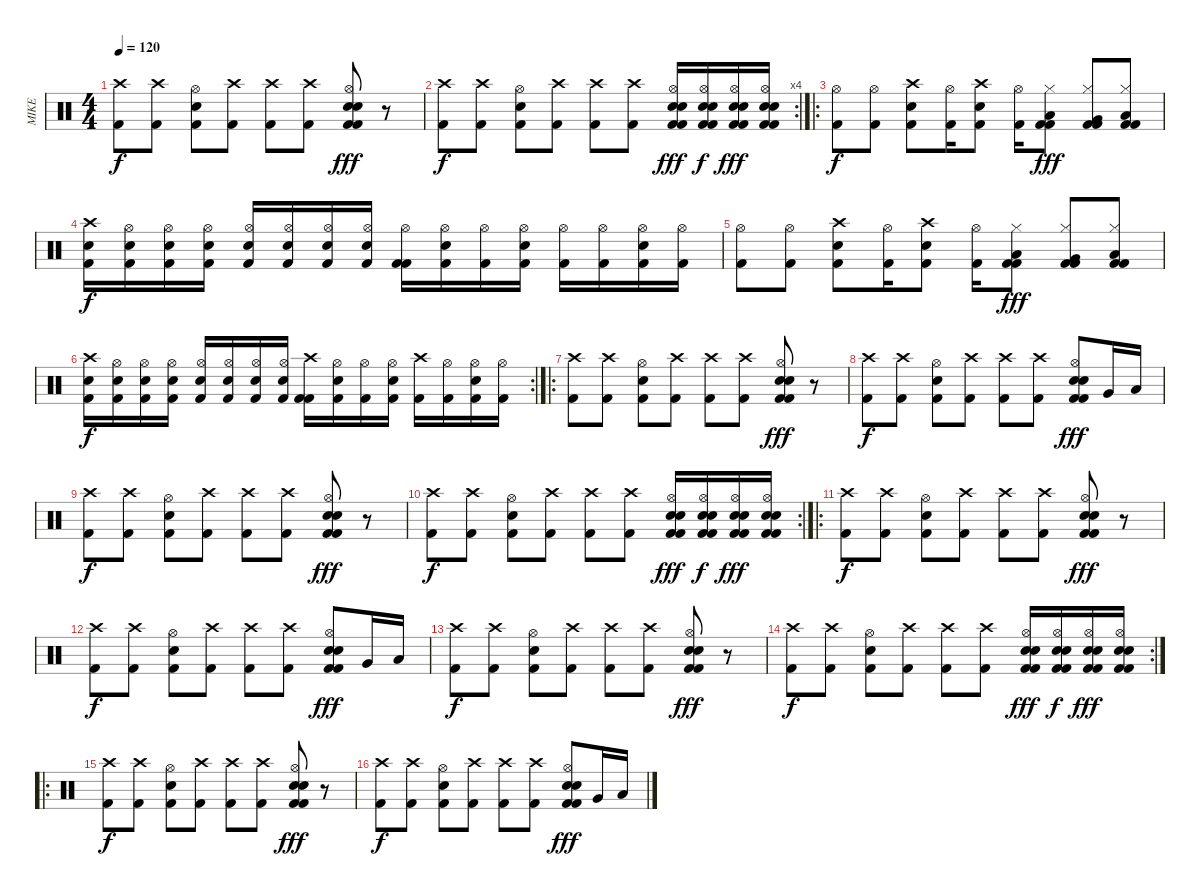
\track ("MIKE" "MIKE") {instrument percussion}
\staff {score}
\articulation defaults
\ts (4 4)
\tempo 120
\clef neutral
\ks c
("Crash high (hit)" "Kick (hit) 2").8{dy f} ("Crash high (hit)" "Kick (hit) 2").8 ("Hi-Hat (open)" "Electric Snare (hit)" "Kick (hit) 2").8 ("Crash high (hit)" "Kick (hit) 2").8 ("Crash high (hit)" "Kick (hit) 2").8 ("Crash high (hit)" "Kick (hit) 2").8 ("Hi-Hat (open)" "Kick (hit) 2" "Electric Snare (hit)" "Electric Snare (hit)" "Kick (hit) 2").8{dy fff} r.8 |
\rc 4
("Crash high (hit)" "Kick (hit) 2").8{dy f} ("Crash high (hit)" "Kick (hit) 2").8 ("Hi-Hat (open)" "Electric Snare (hit)" "Kick (hit) 2").8 ("Crash high (hit)" "Kick (hit) 2").8 ("Crash high (hit)" "Kick (hit) 2").8 ("Crash high (hit)" "Kick (hit) 2").8 ("Hi-Hat (open)" "Kick (hit) 2" "Electric Snare (hit)" "Electric Snare (hit)" "Kick (hit) 2").16{dy fff} ("Hi-Hat (open)" "Kick (hit) 2" "Electric Snare (hit)" "Electric Snare (hit)" "Kick (hit) 2").16{dy f} ("Hi-Hat (open)" "Kick (hit) 2" "Electric Snare (hit)" "Electric Snare (hit)" "Kick (hit) 2").16{dy fff} ("Hi-Hat (open)" "Kick (hit) 2" "Electric Snare (hit)" "Electric Snare (hit)" "Kick (hit) 2").16 |
\ro
("Hi-Hat (open)" "Kick (hit) 2").8{dy f} ("Hi-Hat (open)" "Kick (hit) 2").8 ("Crash high (hit)" "Electric Snare (hit)" "Kick (hit) 2").8 ("Hi-Hat (open)" "Kick (hit) 2").16 ("Crash high (hit)" "Electric Snare (hit)" "Kick (hit) 2").8 ("Hi-Hat (open)" "Kick (hit) 2").16 ("Hi-Hat (closed)" "Low Tom (hit)" "Kick (hit) 2" "Kick (hit) 2").8{dy fff} ("Hi-Hat (closed)" "Very Low Tom (hit)" "Kick (hit) 2" "Kick (hit) 2").8 ("Hi-Hat (closed)" "Low Floor Tom (hit)" "Kick (hit) 2" "Kick (hit) 2").8 |
("Crash high (hit)" "Kick (hit) 2" "Snare (hit) 2").16{dy f} ("Hi-Hat (open)" "Kick (hit) 2" "Snare (hit) 2").16 ("Hi-Hat (open)" "Kick (hit) 2" "Electric Snare (hit)").16 ("Hi-Hat (open)" "Kick (hit) 2" "Snare (hit) 2").16 ("Hi-Hat (open)" "Kick (hit) 2" "Snare (hit) 2").16 ("Hi-Hat (open)" "Kick (hit) 2" "Snare (hit) 2").16 ("Hi-Hat (open)" "Kick (hit) 2" "Snare (hit) 2").16 ("Hi-Hat (open)" "Kick (hit) 2" "Electric Snare (hit)").16 ("Hi-Hat (open)" "Kick (hit) 2" "Kick (hit) 2").16 ("Hi-Hat (open)" "Kick (hit) 2" "Snare (hit) 2").16 ("Hi-Hat (open)" "Kick (hit) 2").16 ("Hi-Hat (open)" "Kick (hit) 2" "Snare (hit) 2").16 ("Hi-Hat (open)" "Kick (hit) 2").16 ("Hi-Hat (open)" "Kick (hit) 2").16 ("Hi-Hat (open)" "Kick (hit) 2" "Snare (hit) 2").16 ("Hi-Hat (open)" "Kick (hit) 2").16 |
("Hi-Hat (open)" "Kick (hit) 2").8 ("Hi-Hat (open)" "Kick (hit) 2").8 ("Crash high (hit)" "Electric Snare (hit)" "Kick (hit) 2").8 ("Hi-Hat (open)" "Kick (hit) 2").16 ("Crash high (hit)" "Electric Snare (hit)" "Kick (hit) 2").8 ("Hi-Hat (open)" "Kick (hit) 2").16 ("Hi-Hat (closed)" "Low Tom (hit)" "Kick (hit) 2" "Kick (hit) 2").8{dy fff} ("Hi-Hat (closed)" "Very Low Tom (hit)" "Kick (hit) 2" "Kick (hit) 2").8 ("Hi-Hat (closed)" "Low Floor Tom (hit)" "Kick (hit) 2" "Kick (hit) 2").8 |
\rc 2
("Crash high (hit)" "Kick (hit) 2" "Snare (hit) 2").16{dy f} ("Hi-Hat (open)" "Kick (hit) 2" "Snare (hit) 2").16 ("Hi-Hat (open)" "Kick (hit) 2" "Electric Snare (hit)").16 ("Hi-Hat (open)" "Kick (hit) 2" "Snare (hit) 2").16 ("Hi-Hat (open)" "Kick (hit) 2" "Snare (hit) 2").16 ("Hi-Hat (open)" "Kick (hit) 2" "Snare (hit) 2").16 ("Hi-Hat (open)" "Kick (hit) 2" "Snare (hit) 2").16 ("Hi-Hat (open)" "Kick (hit) 2" "Electric Snare (hit)").16 ("Crash high (hit)" "Kick (hit) 2" "Kick (hit) 2").16 ("Hi-Hat (open)" "Kick (hit) 2" "Snare (hit) 2").16 ("Hi-Hat (open)" "Kick (hit) 2").16 ("Hi-Hat (open)" "Kick (hit) 2" "Snare (hit) 2").16 ("Crash high (hit)" "Kick (hit) 2").16 ("Hi-Hat (open)" "Kick (hit) 2").16 ("Hi-Hat (open)" "Kick (hit) 2" "Snare (hit) 2").16 ("Hi-Hat (open)" "Kick (hit) 2").16 |
\ro
("Crash high (hit)" "Kick (hit) 2").8 ("Crash high (hit)" "Kick (hit) 2").8 ("Hi-Hat (open)" "Electric Snare (hit)" "Kick (hit) 2").8 ("Crash high (hit)" "Kick (hit) 2").8 ("Crash high (hit)" "Kick (hit) 2").8 ("Crash high (hit)" "Kick (hit) 2").8 ("Hi-Hat (open)" "Kick (hit) 2" "Electric Snare (hit)" "Electric Snare (hit)" "Kick (hit) 2").8{dy fff} r.8 |
("Crash high (hit)" "Kick (hit) 2").8{dy f} ("Crash high (hit)" "Kick (hit) 2").8 ("Hi-Hat (open)" "Electric Snare (hit)" "Kick (hit) 2").8 ("Crash high (hit)" "Kick (hit) 2").8 ("Crash high (hit)" "Kick (hit) 2").8 ("Crash high (hit)" "Kick (hit) 2").8 ("Hi-Hat (open)" "Kick (hit) 2" "Electric Snare (hit)" "Electric Snare (hit)" "Kick (hit) 2").8{dy fff} "Very Low Tom (hit)".16 "Low Floor Tom (hit)".16 |
("Crash high (hit)" "Kick (hit) 2").8{dy f} ("Crash high (hit)" "Kick (hit) 2").8 ("Hi-Hat (open)" "Electric Snare (hit)" "Kick (hit) 2").8 ("Crash high (hit)" "Kick (hit) 2").8 ("Crash high (hit)" "Kick (hit) 2").8 ("Crash high (hit)" "Kick (hit) 2").8 ("Hi-Hat (open)" "Kick (hit) 2" "Electric Snare (hit)" "Electric Snare (hit)" "Kick (hit) 2").8{dy fff} r.8 |
\rc 2
("Crash high (hit)" "Kick (hit) 2").8{dy f} ("Crash high (hit)" "Kick (hit) 2").8 ("Hi-Hat (open)" "Electric Snare (hit)" "Kick (hit) 2").8 ("Crash high (hit)" "Kick (hit) 2").8 ("Crash high (hit)" "Kick (hit) 2").8 ("Crash high (hit)" "Kick (hit) 2").8 ("Hi-Hat (open)" "Kick (hit) 2" "Electric Snare (hit)" "Electric Snare (hit)" "Kick (hit) 2").16{dy fff} ("Hi-Hat (open)" "Kick (hit) 2" "Electric Snare (hit)" "Electric Snare (hit)" "Kick (hit) 2").16{dy f} ("Hi-Hat (open)" "Kick (hit) 2" "Electric Snare (hit)" "Electric Snare (hit)" "Kick (hit) 2").16{dy fff} ("Hi-Hat (open)" "Kick (hit) 2" "Electric Snare (hit)" "Electric Snare (hit)" "Kick (hit) 2").16 |
\ro
("Crash high (hit)" "Kick (hit) 2").8{dy f} ("Crash high (hit)" "Kick (hit) 2").8 ("Hi-Hat (open)" "Electric Snare (hit)" "Kick (hit) 2").8 ("Crash high (hit)" "Kick (hit) 2").8 ("Crash high (hit)" "Kick (hit) 2").8 ("Crash high (hit)" "Kick (hit) 2").8 ("Hi-Hat (open)" "Kick (hit) 2" "Electric Snare (hit)" "Electric Snare (hit)" "Kick (hit) 2").8{dy fff} r.8 |
("Crash high (hit)" "Kick (hit) 2").8{dy f} ("Crash high (hit)" "Kick (hit) 2").8 ("Hi-Hat (open)" "Electric Snare (hit)" "Kick (hit) 2").8 ("Crash high (hit)" "Kick (hit) 2").8 ("Crash high (hit)" "Kick (hit) 2").8 ("Crash high (hit)" "Kick (hit) 2").8 ("Hi-Hat (open)" "Kick (hit) 2" "Electric Snare (hit)" "Electric Snare (hit)" "Kick (hit) 2").8{dy fff} "Very Low Tom (hit)".16 "Low Floor Tom (hit)".16 |
("Crash high (hit)" "Kick (hit) 2").8{dy f} ("Crash high (hit)" "Kick (hit) 2").8 ("Hi-Hat (open)" "Electric Snare (hit)" "Kick (hit) 2").8 ("Crash high (hit)" "Kick (hit) 2").8 ("Crash high (hit)" "Kick (hit) 2").8 ("Crash high (hit)" "Kick (hit) 2").8 ("Hi-Hat (open)" "Kick (hit) 2" "Electric Snare (hit)" "Electric Snare (hit)" "Kick (hit) 2").8{dy fff} r.8 |
\rc 2
("Crash high (hit)" "Kick (hit) 2").8{dy f} ("Crash high (hit)" "Kick (hit) 2").8 ("Hi-Hat (open)" "Electric Snare (hit)" "Kick (hit) 2").8 ("Crash high (hit)" "Kick (hit) 2").8 ("Crash high (hit)" "Kick (hit) 2").8 ("Crash high (hit)" "Kick (hit) 2").8 ("Hi-Hat (open)" "Kick (hit) 2" "Electric Snare (hit)" "Electric Snare (hit)" "Kick (hit) 2").16{dy fff} ("Hi-Hat (open)" "Kick (hit) 2" "Electric Snare (hit)" "Electric Snare (hit)" "Kick (hit) 2").16{dy f} ("Hi-Hat (open)" "Kick (hit) 2" "Electric Snare (hit)" "Electric Snare (hit)" "Kick (hit) 2").16{dy fff} ("Hi-Hat (open)" "Kick (hit) 2" "Electric Snare (hit)" "Electric Snare (hit)" "Kick (hit) 2").16 |
\ro
("Crash high (hit)" "Kick (hit) 2").8{dy f} ("Crash high (hit)" "Kick (hit) 2").8 ("Hi-Hat (open)" "Electric Snare (hit)" "Kick (hit) 2").8 ("Crash high (hit)" "Kick (hit) 2").8 ("Crash high (hit)" "Kick (hit) 2").8 ("Crash high (hit)" "Kick (hit) 2").8 ("Hi-Hat (open)" "Kick (hit) 2" "Electric Snare (hit)" "Electric Snare (hit)" "Kick (hit) 2").8{dy fff} r.8 |
("Crash high (hit)" "Kick (hit) 2").8{dy f} ("Crash high (hit)" "Kick (hit) 2").8 ("Hi-Hat (open)" "Electric Snare (hit)" "Kick (hit) 2").8 ("Crash high (hit)" "Kick (hit) 2").8 ("Crash high (hit)" "Kick (hit) 2").8 ("Crash high (hit)" "Kick (hit) 2").8 ("Hi-Hat (open)" "Kick (hit) 2" "Electric Snare (hit)" "Electric Snare (hit)" "Kick (hit) 2").8{dy fff} "Very Low Tom (hit)".16 "Low Floor Tom (hit)".16
